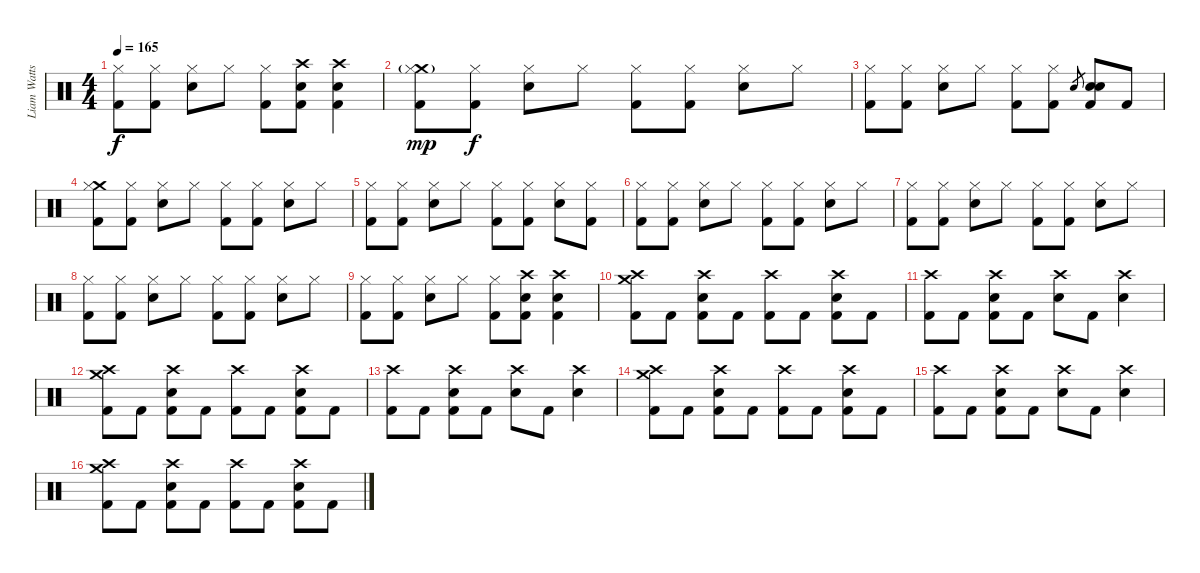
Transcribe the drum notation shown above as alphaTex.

\track ("Liam Watts (Percussion)" "Liam Watts") {instrument percussion}
\staff {score}
\articulation defaults
\ts (4 4)
\tempo 165
\clef neutral
\ks c
("Hi-Hat (closed)" "Kick (hit) 2").8{dy f} ("Hi-Hat (closed)" "Kick (hit) 2").8 ("Hi-Hat (closed)" "Snare (hit) 2").8 "Hi-Hat (closed)".8 ("Hi-Hat (closed)" "Kick (hit) 2").8 ("Crash high (hit)" "Snare (hit) 2" "Kick (hit) 2").8 ("Crash high (hit)" "Snare (hit) 2" "Kick (hit) 2").4 |
("Crash medium (hit)"{g} "Hi-Hat (closed)" "Kick (hit) 2").8{dy mp} ("Hi-Hat (closed)" "Kick (hit) 2").8{dy f} ("Hi-Hat (closed)" "Snare (hit) 2").8 "Hi-Hat (closed)".8 ("Hi-Hat (closed)" "Kick (hit) 2").8 ("Hi-Hat (closed)" "Kick (hit) 2").8 ("Hi-Hat (closed)" "Snare (hit) 2").8 "Hi-Hat (closed)".8 |
("Hi-Hat (closed)" "Kick (hit) 2").8 ("Hi-Hat (closed)" "Kick (hit) 2").8 ("Hi-Hat (closed)" "Snare (hit) 2").8 "Hi-Hat (closed)".8 ("Hi-Hat (closed)" "Kick (hit) 2").8 ("Hi-Hat (closed)" "Kick (hit) 2").8 "Snare (hit) 2".8{gr} ("Snare (hit) 2" "Snare (hit) 2" "Kick (hit) 2").8 "Kick (hit) 2".8 |
("Crash medium (hit)" "Hi-Hat (closed)" "Kick (hit) 2").8 ("Hi-Hat (closed)" "Kick (hit) 2").8 ("Hi-Hat (closed)" "Snare (hit) 2").8 "Hi-Hat (closed)".8 ("Hi-Hat (closed)" "Kick (hit) 2").8 ("Hi-Hat (closed)" "Kick (hit) 2").8 ("Hi-Hat (closed)" "Snare (hit) 2").8 "Hi-Hat (closed)".8 |
("Hi-Hat (closed)" "Kick (hit) 2").8 ("Hi-Hat (closed)" "Kick (hit) 2").8 ("Hi-Hat (closed)" "Snare (hit) 2").8 "Hi-Hat (closed)".8 ("Hi-Hat (closed)" "Kick (hit) 2").8 ("Hi-Hat (closed)" "Kick (hit) 2").8 ("Hi-Hat (closed)" "Snare (hit) 2").8 ("Hi-Hat (closed)" "Kick (hit) 2").8 |
("Hi-Hat (closed)" "Kick (hit) 2").8 ("Hi-Hat (closed)" "Kick (hit) 2").8 ("Hi-Hat (closed)" "Snare (hit) 2").8 "Hi-Hat (closed)".8 ("Hi-Hat (closed)" "Kick (hit) 2").8 ("Hi-Hat (closed)" "Kick (hit) 2").8 ("Hi-Hat (closed)" "Snare (hit) 2").8 "Hi-Hat (closed)".8 |
("Hi-Hat (closed)" "Kick (hit) 2").8 ("Hi-Hat (closed)" "Kick (hit) 2").8 ("Hi-Hat (closed)" "Snare (hit) 2").8 "Hi-Hat (closed)".8 ("Hi-Hat (closed)" "Kick (hit) 2").8 ("Hi-Hat (closed)" "Kick (hit) 2").8 ("Hi-Hat (closed)" "Snare (hit) 2").8 "Hi-Hat (closed)".8 |
("Hi-Hat (closed)" "Kick (hit) 2").8 ("Hi-Hat (closed)" "Kick (hit) 2").8 ("Hi-Hat (closed)" "Snare (hit) 2").8 "Hi-Hat (closed)".8 ("Hi-Hat (closed)" "Kick (hit) 2").8 ("Hi-Hat (closed)" "Kick (hit) 2").8 ("Hi-Hat (closed)" "Snare (hit) 2").8 "Hi-Hat (closed)".8 |
("Hi-Hat (closed)" "Kick (hit) 2").8 ("Hi-Hat (closed)" "Kick (hit) 2").8 ("Hi-Hat (closed)" "Snare (hit) 2").8 "Hi-Hat (closed)".8 ("Hi-Hat (closed)" "Kick (hit) 2").8 ("Crash high (hit)" "Snare (hit) 2" "Kick (hit) 2").8 ("Crash high (hit)" "Snare (hit) 2" "Kick (hit) 2").4 |
("Crash medium (hit)" "Crash high (hit)" "Kick (hit) 2").8 "Kick (hit) 2".8 ("Crash high (hit)" "Snare (hit) 2" "Kick (hit) 2").8 "Kick (hit) 2".8 ("Crash high (hit)" "Kick (hit) 2").8 "Kick (hit) 2".8 ("Crash high (hit)" "Snare (hit) 2" "Kick (hit) 2").8 "Kick (hit) 2".8 |
("Crash high (hit)" "Kick (hit) 2").8 "Kick (hit) 2".8 ("Crash high (hit)" "Snare (hit) 2" "Kick (hit) 2").8 "Kick (hit) 2".8 ("Crash high (hit)" "Snare (hit) 2").8 "Kick (hit) 2".8 ("Crash high (hit)" "Snare (hit) 2").4 |
("Crash medium (hit)" "Crash high (hit)" "Kick (hit) 2").8 "Kick (hit) 2".8 ("Crash high (hit)" "Snare (hit) 2" "Kick (hit) 2").8 "Kick (hit) 2".8 ("Crash high (hit)" "Kick (hit) 2").8 "Kick (hit) 2".8 ("Crash high (hit)" "Snare (hit) 2" "Kick (hit) 2").8 "Kick (hit) 2".8 |
("Crash high (hit)" "Kick (hit) 2").8 "Kick (hit) 2".8 ("Crash high (hit)" "Snare (hit) 2" "Kick (hit) 2").8 "Kick (hit) 2".8 ("Crash high (hit)" "Snare (hit) 2").8 "Kick (hit) 2".8 ("Crash high (hit)" "Snare (hit) 2").4 |
("Crash medium (hit)" "Crash high (hit)" "Kick (hit) 2").8 "Kick (hit) 2".8 ("Crash high (hit)" "Snare (hit) 2" "Kick (hit) 2").8 "Kick (hit) 2".8 ("Crash high (hit)" "Kick (hit) 2").8 "Kick (hit) 2".8 ("Crash high (hit)" "Snare (hit) 2" "Kick (hit) 2").8 "Kick (hit) 2".8 |
("Crash high (hit)" "Kick (hit) 2").8 "Kick (hit) 2".8 ("Crash high (hit)" "Snare (hit) 2" "Kick (hit) 2").8 "Kick (hit) 2".8 ("Crash high (hit)" "Snare (hit) 2").8 "Kick (hit) 2".8 ("Crash high (hit)" "Snare (hit) 2").4 |
("Crash medium (hit)" "Crash high (hit)" "Kick (hit) 2").8 "Kick (hit) 2".8 ("Crash high (hit)" "Snare (hit) 2" "Kick (hit) 2").8 "Kick (hit) 2".8 ("Crash high (hit)" "Kick (hit) 2").8 "Kick (hit) 2".8 ("Crash high (hit)" "Snare (hit) 2" "Kick (hit) 2").8 "Kick (hit) 2".8
